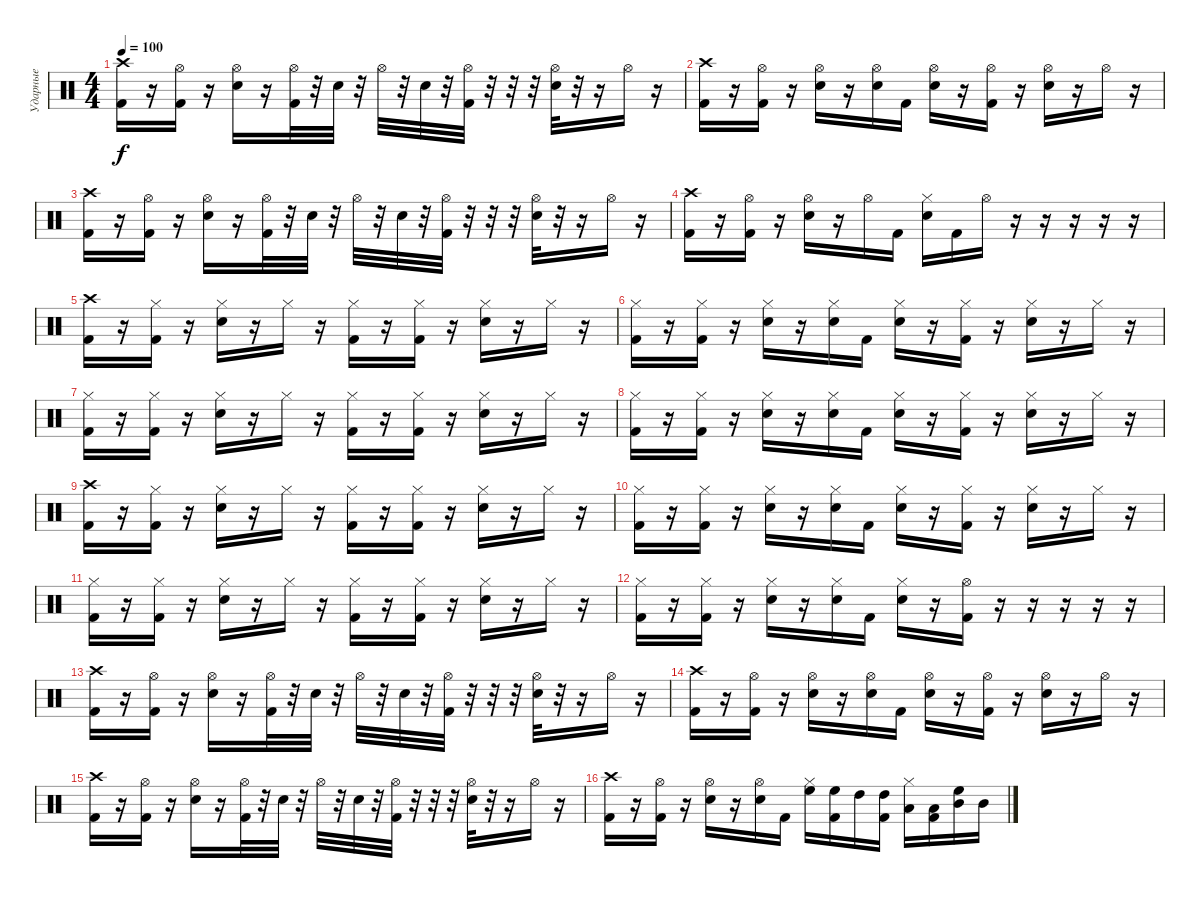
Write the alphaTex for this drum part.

\track ("Ударные" "Ударные") {instrument percussion}
\staff {score}
\articulation defaults
\ts (4 4)
\tempo 100
\clef neutral
\ks c
("Crash high (hit)" "Kick (hit) 2").16{dy f} r.16 ("Hi-Hat (open)" "Kick (hit) 2").16 r.16 ("Hi-Hat (open)" "Electric Snare (hit)").16 r.16 ("Hi-Hat (open)" "Kick (hit) 2").32 r.32 "Electric Snare (hit)".32 r.32 "Hi-Hat (open)".32 r.32 "Electric Snare (hit)".32 r.32 ("Hi-Hat (open)" "Kick (hit) 2").32 r.32 r.32 r.32 ("Hi-Hat (open)" "Electric Snare (hit)").32 r.32 r.16 "Hi-Hat (open)".16 r.16 |
("Crash high (hit)" "Kick (hit) 2").16 r.16 ("Hi-Hat (open)" "Kick (hit) 2").16 r.16 ("Hi-Hat (open)" "Electric Snare (hit)").16 r.16 ("Hi-Hat (open)" "Electric Snare (hit)").16 "Kick (hit) 2".16 ("Hi-Hat (open)" "Electric Snare (hit)").16 r.16 ("Hi-Hat (open)" "Kick (hit) 2").16 r.16 ("Hi-Hat (open)" "Electric Snare (hit)").16 r.16 "Hi-Hat (open)".16 r.16 |
("Crash high (hit)" "Kick (hit) 2").16 r.16 ("Hi-Hat (open)" "Kick (hit) 2").16 r.16 ("Hi-Hat (open)" "Electric Snare (hit)").16 r.16 ("Hi-Hat (open)" "Kick (hit) 2").32 r.32 "Electric Snare (hit)".32 r.32 "Hi-Hat (open)".32 r.32 "Electric Snare (hit)".32 r.32 ("Hi-Hat (open)" "Kick (hit) 2").32 r.32 r.32 r.32 ("Hi-Hat (open)" "Electric Snare (hit)").32 r.32 r.16 "Hi-Hat (open)".16 r.16 |
("Crash high (hit)" "Kick (hit) 2").16 r.16 ("Hi-Hat (open)" "Kick (hit) 2").16 r.16 ("Hi-Hat (open)" "Electric Snare (hit)").16 r.16 "Hi-Hat (open)".16 "Kick (hit) 2".16 ("Hi-Hat (closed)" "Electric Snare (hit)").16 "Kick (hit) 2".16 "Hi-Hat (open)".16 r.16 r.16 r.16 r.16 r.16 |
("Crash high (hit)" "Kick (hit) 2").16 r.16 ("Hi-Hat (closed)" "Kick (hit) 2").16 r.16 ("Hi-Hat (closed)" "Electric Snare (hit)").16 r.16 "Hi-Hat (closed)".16 r.16 ("Hi-Hat (closed)" "Kick (hit) 2").16 r.16 ("Hi-Hat (closed)" "Kick (hit) 2").16 r.16 ("Hi-Hat (closed)" "Electric Snare (hit)").16 r.16 "Hi-Hat (closed)".16 r.16 |
("Hi-Hat (closed)" "Kick (hit) 2").16 r.16 ("Hi-Hat (closed)" "Kick (hit) 2").16 r.16 ("Hi-Hat (closed)" "Electric Snare (hit)").16 r.16 ("Hi-Hat (closed)" "Electric Snare (hit)").16 "Kick (hit) 2".16 ("Hi-Hat (closed)" "Electric Snare (hit)").16 r.16 ("Hi-Hat (closed)" "Kick (hit) 2").16 r.16 ("Hi-Hat (closed)" "Electric Snare (hit)").16 r.16 "Hi-Hat (closed)".16 r.16 |
("Hi-Hat (closed)" "Kick (hit) 2").16 r.16 ("Hi-Hat (closed)" "Kick (hit) 2").16 r.16 ("Hi-Hat (closed)" "Electric Snare (hit)").16 r.16 "Hi-Hat (closed)".16 r.16 ("Hi-Hat (closed)" "Kick (hit) 2").16 r.16 ("Hi-Hat (closed)" "Kick (hit) 2").16 r.16 ("Hi-Hat (closed)" "Electric Snare (hit)").16 r.16 "Hi-Hat (closed)".16 r.16 |
("Hi-Hat (closed)" "Kick (hit) 2").16 r.16 ("Hi-Hat (closed)" "Kick (hit) 2").16 r.16 ("Hi-Hat (closed)" "Electric Snare (hit)").16 r.16 ("Hi-Hat (closed)" "Electric Snare (hit)").16 "Kick (hit) 2".16 ("Hi-Hat (closed)" "Electric Snare (hit)").16 r.16 ("Hi-Hat (closed)" "Kick (hit) 2").16 r.16 ("Hi-Hat (closed)" "Electric Snare (hit)").16 r.16 "Hi-Hat (closed)".16 r.16 |
("Crash high (hit)" "Kick (hit) 2").16 r.16 ("Hi-Hat (closed)" "Kick (hit) 2").16 r.16 ("Hi-Hat (closed)" "Electric Snare (hit)").16 r.16 "Hi-Hat (closed)".16 r.16 ("Hi-Hat (closed)" "Kick (hit) 2").16 r.16 ("Hi-Hat (closed)" "Kick (hit) 2").16 r.16 ("Hi-Hat (closed)" "Electric Snare (hit)").16 r.16 "Hi-Hat (closed)".16 r.16 |
("Hi-Hat (closed)" "Kick (hit) 2").16 r.16 ("Hi-Hat (closed)" "Kick (hit) 2").16 r.16 ("Hi-Hat (closed)" "Electric Snare (hit)").16 r.16 ("Hi-Hat (closed)" "Electric Snare (hit)").16 "Kick (hit) 2".16 ("Hi-Hat (closed)" "Electric Snare (hit)").16 r.16 ("Hi-Hat (closed)" "Kick (hit) 2").16 r.16 ("Hi-Hat (closed)" "Electric Snare (hit)").16 r.16 "Hi-Hat (closed)".16 r.16 |
("Hi-Hat (closed)" "Kick (hit) 2").16 r.16 ("Hi-Hat (closed)" "Kick (hit) 2").16 r.16 ("Hi-Hat (closed)" "Electric Snare (hit)").16 r.16 "Hi-Hat (closed)".16 r.16 ("Hi-Hat (closed)" "Kick (hit) 2").16 r.16 ("Hi-Hat (closed)" "Kick (hit) 2").16 r.16 ("Hi-Hat (closed)" "Electric Snare (hit)").16 r.16 "Hi-Hat (closed)".16 r.16 |
("Hi-Hat (closed)" "Kick (hit) 2").16 r.16 ("Hi-Hat (closed)" "Kick (hit) 2").16 r.16 ("Hi-Hat (closed)" "Electric Snare (hit)").16 r.16 ("Hi-Hat (closed)" "Electric Snare (hit)").16 "Kick (hit) 2".16 ("Hi-Hat (closed)" "Electric Snare (hit)").16 r.16 ("Hi-Hat (open)" "Kick (hit) 2").16 r.16 r.16 r.16 r.16 r.16 |
("Crash high (hit)" "Kick (hit) 2").16 r.16 ("Hi-Hat (open)" "Kick (hit) 2").16 r.16 ("Hi-Hat (open)" "Electric Snare (hit)").16 r.16 ("Hi-Hat (open)" "Kick (hit) 2").32 r.32 "Electric Snare (hit)".32 r.32 "Hi-Hat (open)".32 r.32 "Electric Snare (hit)".32 r.32 ("Hi-Hat (open)" "Kick (hit) 2").32 r.32 r.32 r.32 ("Hi-Hat (open)" "Electric Snare (hit)").32 r.32 r.16 "Hi-Hat (open)".16 r.16 |
("Crash high (hit)" "Kick (hit) 2").16 r.16 ("Hi-Hat (open)" "Kick (hit) 2").16 r.16 ("Hi-Hat (open)" "Electric Snare (hit)").16 r.16 ("Hi-Hat (open)" "Electric Snare (hit)").16 "Kick (hit) 2".16 ("Hi-Hat (open)" "Electric Snare (hit)").16 r.16 ("Hi-Hat (open)" "Kick (hit) 2").16 r.16 ("Hi-Hat (open)" "Electric Snare (hit)").16 r.16 "Hi-Hat (open)".16 r.16 |
("Crash high (hit)" "Kick (hit) 2").16 r.16 ("Hi-Hat (open)" "Kick (hit) 2").16 r.16 ("Hi-Hat (open)" "Electric Snare (hit)").16 r.16 ("Hi-Hat (open)" "Kick (hit) 2").32 r.32 "Electric Snare (hit)".32 r.32 "Hi-Hat (open)".32 r.32 "Electric Snare (hit)".32 r.32 ("Hi-Hat (open)" "Kick (hit) 2").32 r.32 r.32 r.32 ("Hi-Hat (open)" "Electric Snare (hit)").32 r.32 r.16 "Hi-Hat (open)".16 r.16 |
("Crash high (hit)" "Kick (hit) 2").16 r.16 ("Hi-Hat (open)" "Kick (hit) 2").16 r.16 ("Hi-Hat (open)" "Electric Snare (hit)").16 r.16 ("Hi-Hat (open)" "Electric Snare (hit)").16 "Kick (hit) 2".16 ("Hi-Hat (closed)" "High Floor Tom (hit)").16 ("High Floor Tom (hit)" "Kick (hit) 2").16 "High Tom (hit)".16 ("High Tom (hit)" "Kick (hit) 2").16 ("Hi-Hat (closed)" "Low Tom (hit)").16 ("Low Tom (hit)" "Kick (hit) 2").16 ("High Floor Tom (hit)" "Mid Tom (hit)").16 "Mid Tom (hit)".16
